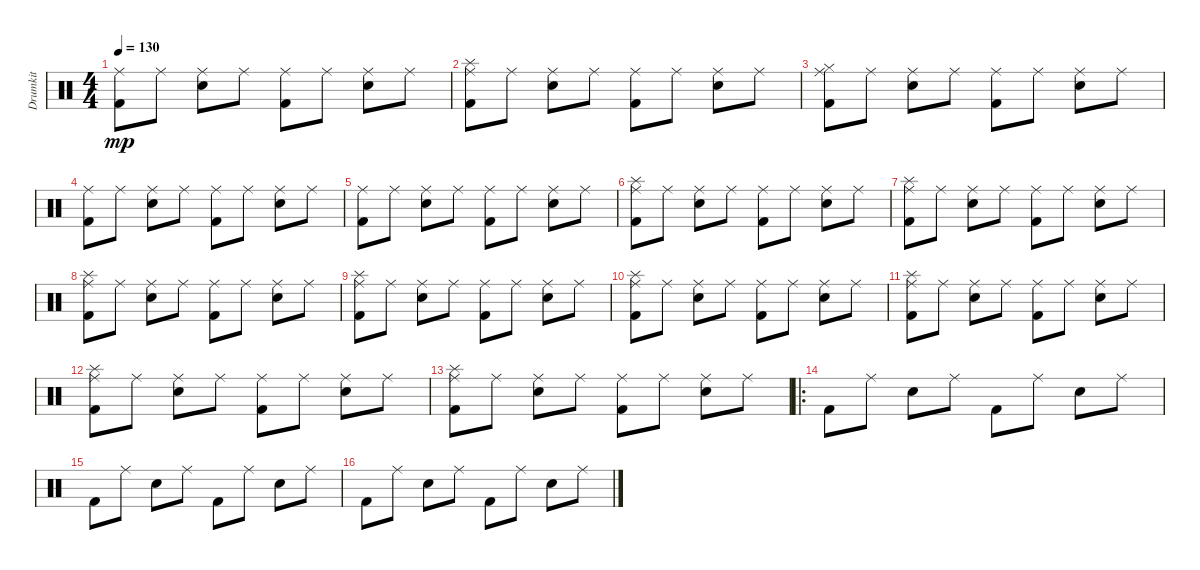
\track ("Drumkit" "Drumkit") {instrument percussion}
\staff {score}
\articulation defaults
\ts (4 4)
\tempo 130
\clef neutral
\ks c
("Kick (hit) 2" "Ride (middle)").8{dy mp} "Ride (middle)".8 ("Snare (hit) 2" "Ride (middle)").8 "Ride (middle)".8 ("Kick (hit) 2" "Ride (middle)").8 "Ride (middle)".8 ("Snare (hit) 2" "Ride (middle)").8 "Ride (middle)".8 |
("Kick (hit) 2" "Ride (middle)" "Splash (hit)").8 "Ride (middle)".8 ("Snare (hit) 2" "Ride (middle)").8 "Ride (middle)".8 ("Kick (hit) 2" "Ride (middle)").8 "Ride (middle)".8 ("Snare (hit) 2" "Ride (middle)").8 "Ride (middle)".8 |
("Kick (hit) 2" "Ride (middle)" "Hi-Hat (closed)").8 "Ride (middle)".8 ("Snare (hit) 2" "Ride (middle)").8 "Ride (middle)".8 ("Kick (hit) 2" "Ride (middle)").8 "Ride (middle)".8 ("Snare (hit) 2" "Ride (middle)").8 "Ride (middle)".8 |
("Kick (hit) 2" "Ride (middle)").8 "Ride (middle)".8 ("Snare (hit) 2" "Ride (middle)").8 "Ride (middle)".8 ("Kick (hit) 2" "Ride (middle)").8 "Ride (middle)".8 ("Snare (hit) 2" "Ride (middle)").8 "Ride (middle)".8 |
("Kick (hit) 2" "Ride (middle)").8 "Ride (middle)".8 ("Snare (hit) 2" "Ride (middle)").8 "Ride (middle)".8 ("Kick (hit) 2" "Ride (middle)").8 "Ride (middle)".8 ("Snare (hit) 2" "Ride (middle)").8 "Ride (middle)".8 |
("Kick (hit) 2" "Ride (middle)" "Splash (hit)").8 "Ride (middle)".8 ("Snare (hit) 2" "Ride (middle)").8 "Ride (middle)".8 ("Kick (hit) 2" "Ride (middle)").8 "Ride (middle)".8 ("Snare (hit) 2" "Ride (middle)").8 "Ride (middle)".8 |
("Kick (hit) 2" "Ride (middle)" "Splash (hit)").8 "Ride (middle)".8 ("Snare (hit) 2" "Ride (middle)").8 "Ride (middle)".8 ("Kick (hit) 2" "Ride (middle)").8 "Ride (middle)".8 ("Snare (hit) 2" "Ride (middle)").8 "Ride (middle)".8 |
("Kick (hit) 2" "Ride (middle)" "Splash (hit)").8 "Ride (middle)".8 ("Snare (hit) 2" "Ride (middle)").8 "Ride (middle)".8 ("Kick (hit) 2" "Ride (middle)").8 "Ride (middle)".8 ("Snare (hit) 2" "Ride (middle)").8 "Ride (middle)".8 |
("Kick (hit) 2" "Ride (middle)" "Splash (hit)").8 "Ride (middle)".8 ("Snare (hit) 2" "Ride (middle)").8 "Ride (middle)".8 ("Kick (hit) 2" "Ride (middle)").8 "Ride (middle)".8 ("Snare (hit) 2" "Ride (middle)").8 "Ride (middle)".8 |
("Kick (hit) 2" "Ride (middle)" "Splash (hit)").8 "Ride (middle)".8 ("Snare (hit) 2" "Ride (middle)").8 "Ride (middle)".8 ("Kick (hit) 2" "Ride (middle)").8 "Ride (middle)".8 ("Snare (hit) 2" "Ride (middle)").8 "Ride (middle)".8 |
("Kick (hit) 2" "Ride (middle)" "Splash (hit)").8 "Ride (middle)".8 ("Snare (hit) 2" "Ride (middle)").8 "Ride (middle)".8 ("Kick (hit) 2" "Ride (middle)").8 "Ride (middle)".8 ("Snare (hit) 2" "Ride (middle)").8 "Ride (middle)".8 |
("Kick (hit) 2" "Ride (middle)" "Splash (hit)").8 "Ride (middle)".8 ("Snare (hit) 2" "Ride (middle)").8 "Ride (middle)".8 ("Kick (hit) 2" "Ride (middle)").8 "Ride (middle)".8 ("Snare (hit) 2" "Ride (middle)").8 "Ride (middle)".8 |
("Kick (hit) 2" "Ride (middle)" "Splash (hit)").8 "Ride (middle)".8 ("Snare (hit) 2" "Ride (middle)").8 "Ride (middle)".8 ("Kick (hit) 2" "Ride (middle)").8 "Ride (middle)".8 ("Snare (hit) 2" "Ride (middle)").8 "Ride (middle)".8 |
\ro "Kick (hit) 2".8 "Ride (middle)".8 "Snare (hit) 2".8 "Ride (middle)".8 "Kick (hit) 2".8 "Ride (middle)".8 "Snare (hit) 2".8 "Ride (middle)".8
|
"Kick (hit) 2".8 "Ride (middle)".8 "Snare (hit) 2".8 "Ride (middle)".8 "Kick (hit) 2".8 "Ride (middle)".8 "Snare (hit) 2".8 "Ride (middle)".8 |
"Kick (hit) 2".8 "Ride (middle)".8 "Snare (hit) 2".8 "Ride (middle)".8 "Kick (hit) 2".8 "Ride (middle)".8 "Snare (hit) 2".8 "Ride (middle)".8
